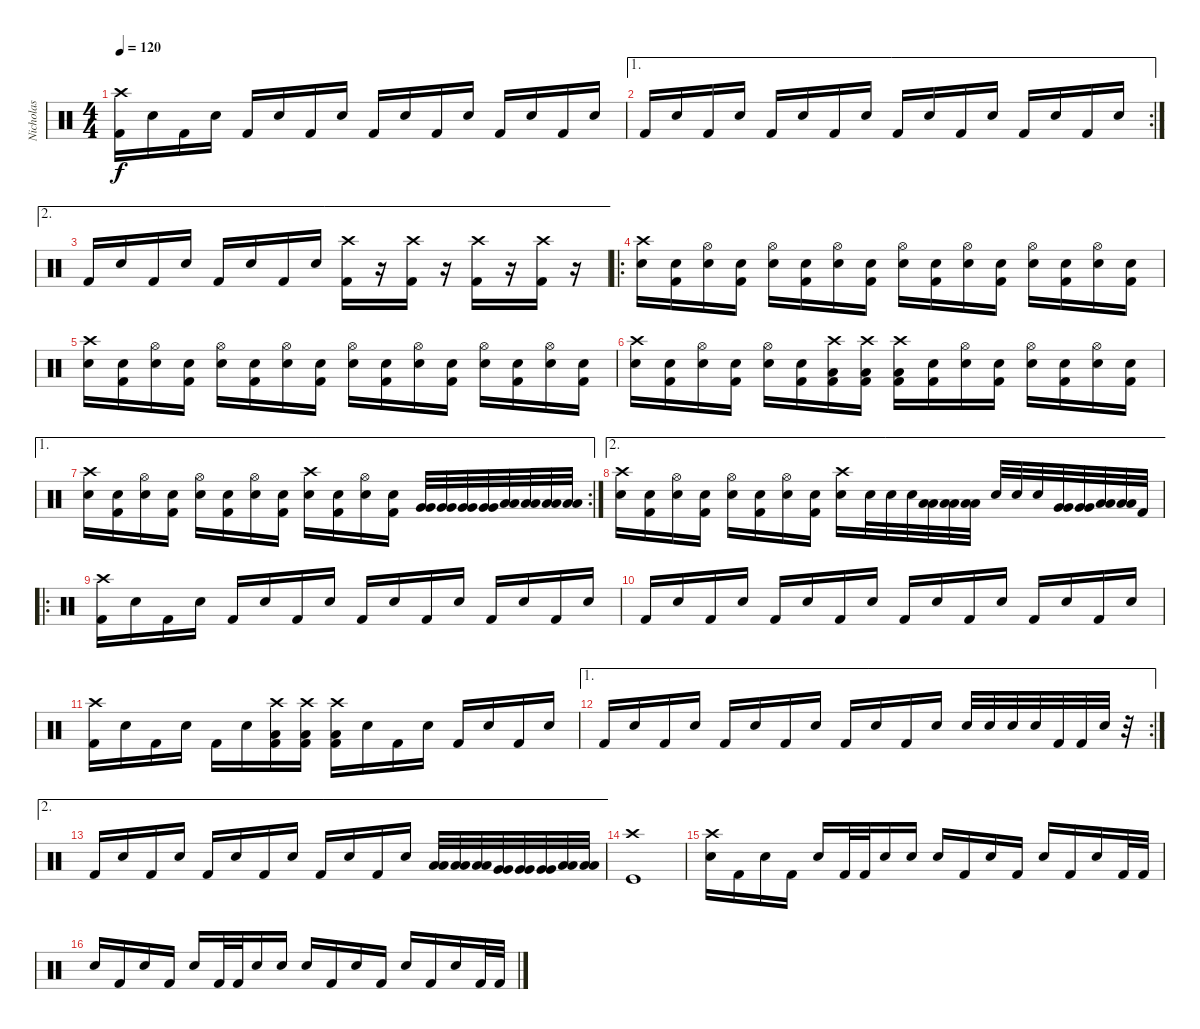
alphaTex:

\track ("Nicholas" "Nicholas") {instrument percussion}
\staff {score}
\articulation defaults
\ts (4 4)
\tempo 120
\clef neutral
\ks c
("Crash high (hit)" "Kick (hit) 2").16{dy f} "Electric Snare (hit)".16 "Kick (hit) 2".16 "Electric Snare (hit)".16 "Kick (hit) 2".16 "Electric Snare (hit)".16 "Kick (hit) 2".16 "Electric Snare (hit)".16 "Kick (hit) 2".16 "Electric Snare (hit)".16 "Kick (hit) 2".16 "Electric Snare (hit)".16 "Kick (hit) 2".16 "Electric Snare (hit)".16 "Kick (hit) 2".16 "Electric Snare (hit)".16 |
\ae 1
\rc 2 "Kick (hit) 2".16 "Electric Snare (hit)".16 "Kick (hit) 2".16 "Electric Snare (hit)".16 "Kick (hit) 2".16 "Electric Snare (hit)".16 "Kick (hit) 2".16 "Electric Snare (hit)".16 "Kick (hit) 2".16 "Electric Snare (hit)".16 "Kick (hit) 2".16 "Electric Snare (hit)".16 "Kick (hit) 2".16 "Electric Snare (hit)".16 "Kick (hit) 2".16 "Electric Snare (hit)".16
|
\ae 2 "Kick (hit) 2".16 "Electric Snare (hit)".16 "Kick (hit) 2".16 "Electric Snare (hit)".16 "Kick (hit) 2".16 "Electric Snare (hit)".16 "Kick (hit) 2".16 "Electric Snare (hit)".16
("Crash high (hit)" "Kick (hit) 2").16 r.16 ("Crash high (hit)" "Kick (hit) 2").16 r.16 ("Crash high (hit)" "Kick (hit) 2").16 r.16 ("Crash high (hit)" "Kick (hit) 2").16 r.16 |
\ro
("Electric Snare (hit)" "Crash high (hit)").16 ("Kick (hit) 2" "Electric Snare (hit)").16 ("Electric Snare (hit)" "Hi-Hat (open)").16 ("Kick (hit) 2" "Electric Snare (hit)").16 ("Electric Snare (hit)" "Hi-Hat (open)").16 ("Kick (hit) 2" "Electric Snare (hit)").16 ("Electric Snare (hit)" "Hi-Hat (open)").16 ("Kick (hit) 2" "Electric Snare (hit)").16 ("Electric Snare (hit)" "Hi-Hat (open)").16 ("Kick (hit) 2" "Electric Snare (hit)").16 ("Electric Snare (hit)" "Hi-Hat (open)").16 ("Kick (hit) 2" "Electric Snare (hit)").16 ("Electric Snare (hit)" "Hi-Hat (open)").16 ("Kick (hit) 2" "Electric Snare (hit)").16 ("Electric Snare (hit)" "Hi-Hat (open)").16 ("Kick (hit) 2" "Electric Snare (hit)").16 |
("Electric Snare (hit)" "Crash high (hit)").16 ("Kick (hit) 2" "Electric Snare (hit)").16 ("Electric Snare (hit)" "Hi-Hat (open)").16 ("Kick (hit) 2" "Electric Snare (hit)").16 ("Electric Snare (hit)" "Hi-Hat (open)").16 ("Kick (hit) 2" "Electric Snare (hit)").16 ("Electric Snare (hit)" "Hi-Hat (open)").16 ("Kick (hit) 2" "Electric Snare (hit)").16 ("Electric Snare (hit)" "Hi-Hat (open)").16 ("Kick (hit) 2" "Electric Snare (hit)").16 ("Electric Snare (hit)" "Hi-Hat (open)").16 ("Kick (hit) 2" "Electric Snare (hit)").16 ("Electric Snare (hit)" "Hi-Hat (open)").16 ("Kick (hit) 2" "Electric Snare (hit)").16 ("Electric Snare (hit)" "Hi-Hat (open)").16 ("Kick (hit) 2" "Electric Snare (hit)").16 |
("Electric Snare (hit)" "Crash high (hit)").16 ("Kick (hit) 2" "Electric Snare (hit)").16 ("Electric Snare (hit)" "Hi-Hat (open)").16 ("Kick (hit) 2" "Electric Snare (hit)").16 ("Electric Snare (hit)" "Hi-Hat (open)").16 ("Kick (hit) 2" "Electric Snare (hit)").16 ("Kick (hit) 2" "Low Floor Tom (hit)" "Crash high (hit)").16 ("Kick (hit) 2" "Low Floor Tom (hit)" "Crash high (hit)").16 ("Kick (hit) 2" "Low Floor Tom (hit)" "Crash high (hit)").16 ("Kick (hit) 2" "Electric Snare (hit)").16 ("Electric Snare (hit)" "Hi-Hat (open)").16 ("Kick (hit) 2" "Electric Snare (hit)").16 ("Electric Snare (hit)" "Hi-Hat (open)").16 ("Kick (hit) 2" "Electric Snare (hit)").16 ("Electric Snare (hit)" "Hi-Hat (open)").16 ("Kick (hit) 2" "Electric Snare (hit)").16 |
\ae 1
\rc 2
("Electric Snare (hit)" "Crash high (hit)").16 ("Kick (hit) 2" "Electric Snare (hit)").16 ("Electric Snare (hit)" "Hi-Hat (open)").16 ("Kick (hit) 2" "Electric Snare (hit)").16 ("Electric Snare (hit)" "Hi-Hat (open)").16 ("Kick (hit) 2" "Electric Snare (hit)").16 ("Electric Snare (hit)" "Hi-Hat (open)").16 ("Kick (hit) 2" "Electric Snare (hit)").16 ("Electric Snare (hit)" "Crash high (hit)").16 ("Kick (hit) 2" "Electric Snare (hit)").16 ("Electric Snare (hit)" "Hi-Hat (open)").16 ("Kick (hit) 2" "Electric Snare (hit)").16 ("Very Low Tom (hit)" "Very Low Tom (hit)").32 ("Very Low Tom (hit)" "Very Low Tom (hit)").32 ("Very Low Tom (hit)" "Very Low Tom (hit)").32 ("Very Low Tom (hit)" "Very Low Tom (hit)").32 ("Low Floor Tom (hit)" "Low Floor Tom (hit)").32 ("Low Floor Tom (hit)" "Low Floor Tom (hit)").32 ("Low Floor Tom (hit)" "Low Floor Tom (hit)").32 ("Low Floor Tom (hit)" "Low Floor Tom (hit)").32 |
\ae 2
("Electric Snare (hit)" "Crash high (hit)").16 ("Kick (hit) 2" "Electric Snare (hit)").16 ("Electric Snare (hit)" "Hi-Hat (open)").16 ("Kick (hit) 2" "Electric Snare (hit)").16 ("Electric Snare (hit)" "Hi-Hat (open)").16 ("Kick (hit) 2" "Electric Snare (hit)").16 ("Electric Snare (hit)" "Hi-Hat (open)").16 ("Kick (hit) 2" "Electric Snare (hit)").16 ("Electric Snare (hit)" "Crash high (hit)").16 "Electric Snare (hit)".32 "Electric Snare (hit)".32 "Electric Snare (hit)".32 ("Low Tom (hit)" "Low Tom (hit)").32 ("Low Tom (hit)" "Low Tom (hit)").32 ("Low Tom (hit)" "Low Tom (hit)").32 "Electric Snare (hit)".32 "Electric Snare (hit)".32 "Electric Snare (hit)".32 ("Very Low Tom (hit)" "Very Low Tom (hit)").32 ("Very Low Tom (hit)" "Very Low Tom (hit)").32 ("Low Floor Tom (hit)" "Low Floor Tom (hit)").32 ("Low Floor Tom (hit)" "Low Floor Tom (hit)").32 "Kick (hit) 2".32 |
\ro
("Kick (hit) 2" "Crash high (hit)").16 "Electric Snare (hit)".16 "Kick (hit) 2".16 "Electric Snare (hit)".16 "Kick (hit) 2".16 "Electric Snare (hit)".16 "Kick (hit) 2".16 "Electric Snare (hit)".16 "Kick (hit) 2".16 "Electric Snare (hit)".16 "Kick (hit) 2".16 "Electric Snare (hit)".16 "Kick (hit) 2".16 "Electric Snare (hit)".16 "Kick (hit) 2".16 "Electric Snare (hit)".16 |
"Kick (hit) 2".16 "Electric Snare (hit)".16 "Kick (hit) 2".16 "Electric Snare (hit)".16 "Kick (hit) 2".16 "Electric Snare (hit)".16 "Kick (hit) 2".16 "Electric Snare (hit)".16 "Kick (hit) 2".16 "Electric Snare (hit)".16 "Kick (hit) 2".16 "Electric Snare (hit)".16 "Kick (hit) 2".16 "Electric Snare (hit)".16 "Kick (hit) 2".16 "Electric Snare (hit)".16 |
("Kick (hit) 2" "Crash high (hit)").16 "Electric Snare (hit)".16 "Kick (hit) 2".16 "Electric Snare (hit)".16 "Kick (hit) 2".16 "Electric Snare (hit)".16 ("Low Floor Tom (hit)" "Kick (hit) 2" "Crash high (hit)").16 ("Low Floor Tom (hit)" "Kick (hit) 2" "Crash high (hit)").16 ("Low Floor Tom (hit)" "Kick (hit) 2" "Crash high (hit)").16 "Electric Snare (hit)".16 "Kick (hit) 2".16 "Electric Snare (hit)".16 "Kick (hit) 2".16 "Electric Snare (hit)".16 "Kick (hit) 2".16 "Electric Snare (hit)".16 |
\ae 1
\rc 2 "Kick (hit) 2".16 "Electric Snare (hit)".16 "Kick (hit) 2".16 "Electric Snare (hit)".16 "Kick (hit) 2".16 "Electric Snare (hit)".16 "Kick (hit) 2".16 "Electric Snare (hit)".16 "Kick (hit) 2".16 "Electric Snare (hit)".16 "Kick (hit) 2".16 "Electric Snare (hit)".16 "Electric Snare (hit)".32 "Electric Snare (hit)".32 "Electric Snare (hit)".32 "Electric Snare (hit)".32 "Kick (hit) 2".32 "Kick (hit) 2".32 "Electric Snare (hit)".32
r.32 |
\ae 2 "Kick (hit) 2".16 "Electric Snare (hit)".16 "Kick (hit) 2".16 "Electric Snare (hit)".16 "Kick (hit) 2".16 "Electric Snare (hit)".16 "Kick (hit) 2".16 "Electric Snare (hit)".16 "Kick (hit) 2".16 "Electric Snare (hit)".16 "Kick (hit) 2".16 "Electric Snare (hit)".16
("Low Tom (hit)" "Low Tom (hit)").32 ("Low Tom (hit)" "Low Tom (hit)").32 ("Low Tom (hit)" "Low Tom (hit)").32 ("Very Low Tom (hit)" "Very Low Tom (hit)").32 ("Very Low Tom (hit)" "Very Low Tom (hit)").32 ("Very Low Tom (hit)" "Very Low Tom (hit)").32 ("Low Floor Tom (hit)" "Low Floor Tom (hit)").32 ("Low Floor Tom (hit)" "Low Floor Tom (hit)").32 |
("Crash high (hit)" "Kick (hit)").1 |
("Electric Snare (hit)" "Crash high (hit)").16 "Kick (hit) 2".16 "Electric Snare (hit)".16 "Kick (hit) 2".16 "Electric Snare (hit)".16 "Kick (hit) 2".32 "Kick (hit) 2".32 "Electric Snare (hit)".16 "Electric Snare (hit)".16 "Electric Snare (hit)".16 "Kick (hit) 2".16 "Electric Snare (hit)".16 "Kick (hit) 2".16 "Electric Snare (hit)".16 "Kick (hit) 2".16 "Electric Snare (hit)".16 "Kick (hit) 2".32 "Kick (hit) 2".32 |
"Electric Snare (hit)".16 "Kick (hit) 2".16 "Electric Snare (hit)".16 "Kick (hit) 2".16 "Electric Snare (hit)".16 "Kick (hit) 2".32 "Kick (hit) 2".32 "Electric Snare (hit)".16 "Electric Snare (hit)".16 "Electric Snare (hit)".16 "Kick (hit) 2".16 "Electric Snare (hit)".16 "Kick (hit) 2".16 "Electric Snare (hit)".16 "Kick (hit) 2".16 "Electric Snare (hit)".16 "Kick (hit) 2".32 "Kick (hit) 2".32
